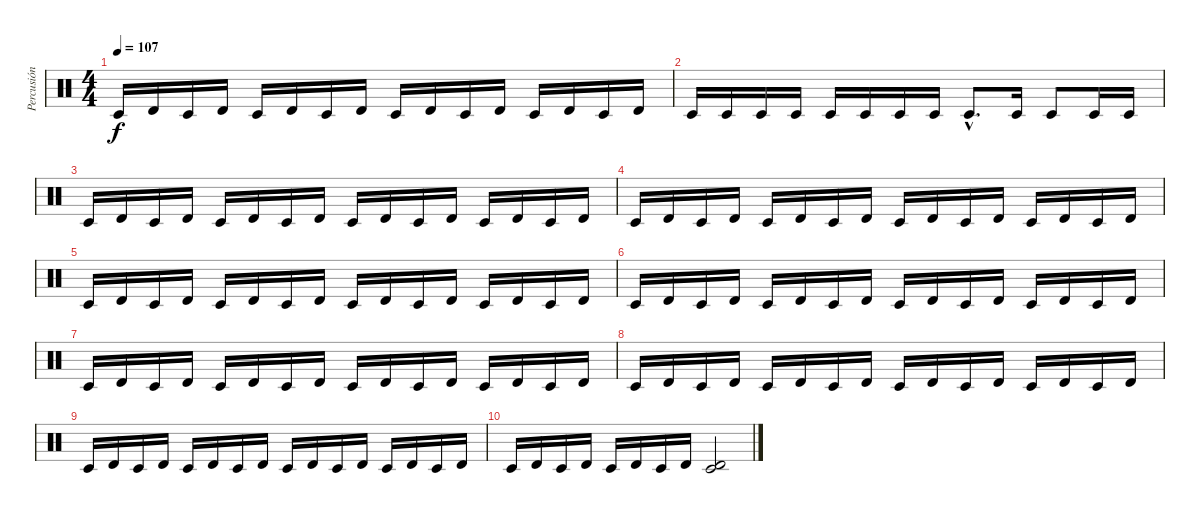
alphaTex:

\track ("Percusión" "Percusión") {instrument percussion}
\staff {score}
\articulation defaults
\ts (4 4)
\tempo 107
\clef neutral
\ks c "Timbale low (hit)".16{dy f} "Timbale high (hit)".16 "Timbale low (hit)".16 "Timbale high (hit)".16 "Timbale low (hit)".16 "Timbale high (hit)".16 "Timbale low (hit)".16 "Timbale high (hit)".16 "Timbale low (hit)".16 "Timbale high (hit)".16 "Timbale low (hit)".16 "Timbale high (hit)".16 "Timbale low (hit)".16 "Timbale high (hit)".16 "Timbale low (hit)".16 "Timbale high (hit)".16
|
"Timbale low (hit)".16 "Timbale low (hit)".16 "Timbale low (hit)".16 "Timbale low (hit)".16 "Timbale low (hit)".16 "Timbale low (hit)".16 "Timbale low (hit)".16 "Timbale low (hit)".16 "Timbale low (hit)"{hac}.8{d} "Timbale low (hit)".16 "Timbale low (hit)".8 "Timbale low (hit)".16 "Timbale low (hit)".16 |
"Timbale low (hit)".16 "Timbale high (hit)".16 "Timbale low (hit)".16 "Timbale high (hit)".16 "Timbale low (hit)".16 "Timbale high (hit)".16 "Timbale low (hit)".16 "Timbale high (hit)".16 "Timbale low (hit)".16 "Timbale high (hit)".16 "Timbale low (hit)".16 "Timbale high (hit)".16 "Timbale low (hit)".16 "Timbale high (hit)".16 "Timbale low (hit)".16 "Timbale high (hit)".16 |
"Timbale low (hit)".16 "Timbale high (hit)".16 "Timbale low (hit)".16 "Timbale high (hit)".16 "Timbale low (hit)".16 "Timbale high (hit)".16 "Timbale low (hit)".16 "Timbale high (hit)".16 "Timbale low (hit)".16 "Timbale high (hit)".16 "Timbale low (hit)".16 "Timbale high (hit)".16 "Timbale low (hit)".16 "Timbale high (hit)".16 "Timbale low (hit)".16 "Timbale high (hit)".16 |
"Timbale low (hit)".16 "Timbale high (hit)".16 "Timbale low (hit)".16 "Timbale high (hit)".16 "Timbale low (hit)".16 "Timbale high (hit)".16 "Timbale low (hit)".16 "Timbale high (hit)".16 "Timbale low (hit)".16 "Timbale high (hit)".16 "Timbale low (hit)".16 "Timbale high (hit)".16 "Timbale low (hit)".16 "Timbale high (hit)".16 "Timbale low (hit)".16 "Timbale high (hit)".16 |
"Timbale low (hit)".16 "Timbale high (hit)".16 "Timbale low (hit)".16 "Timbale high (hit)".16 "Timbale low (hit)".16 "Timbale high (hit)".16 "Timbale low (hit)".16 "Timbale high (hit)".16 "Timbale low (hit)".16 "Timbale high (hit)".16 "Timbale low (hit)".16 "Timbale high (hit)".16 "Timbale low (hit)".16 "Timbale high (hit)".16 "Timbale low (hit)".16 "Timbale high (hit)".16 |
"Timbale low (hit)".16 "Timbale high (hit)".16 "Timbale low (hit)".16 "Timbale high (hit)".16 "Timbale low (hit)".16 "Timbale high (hit)".16 "Timbale low (hit)".16 "Timbale high (hit)".16 "Timbale low (hit)".16 "Timbale high (hit)".16 "Timbale low (hit)".16 "Timbale high (hit)".16 "Timbale low (hit)".16 "Timbale high (hit)".16 "Timbale low (hit)".16 "Timbale high (hit)".16 |
"Timbale low (hit)".16 "Timbale high (hit)".16 "Timbale low (hit)".16 "Timbale high (hit)".16 "Timbale low (hit)".16 "Timbale high (hit)".16 "Timbale low (hit)".16 "Timbale high (hit)".16 "Timbale low (hit)".16 "Timbale high (hit)".16 "Timbale low (hit)".16 "Timbale high (hit)".16 "Timbale low (hit)".16 "Timbale high (hit)".16 "Timbale low (hit)".16 "Timbale high (hit)".16 |
"Timbale low (hit)".16 "Timbale high (hit)".16 "Timbale low (hit)".16 "Timbale high (hit)".16 "Timbale low (hit)".16 "Timbale high (hit)".16 "Timbale low (hit)".16 "Timbale high (hit)".16 "Timbale low (hit)".16 "Timbale high (hit)".16 "Timbale low (hit)".16 "Timbale high (hit)".16 "Timbale low (hit)".16 "Timbale high (hit)".16 "Timbale low (hit)".16 "Timbale high (hit)".16 |
"Timbale low (hit)".16 "Timbale high (hit)".16 "Timbale low (hit)".16 "Timbale high (hit)".16 "Timbale low (hit)".16 "Timbale high (hit)".16 "Timbale low (hit)".16 "Timbale high (hit)".16 ("Timbale low (hit)" "Timbale high (hit)").2
